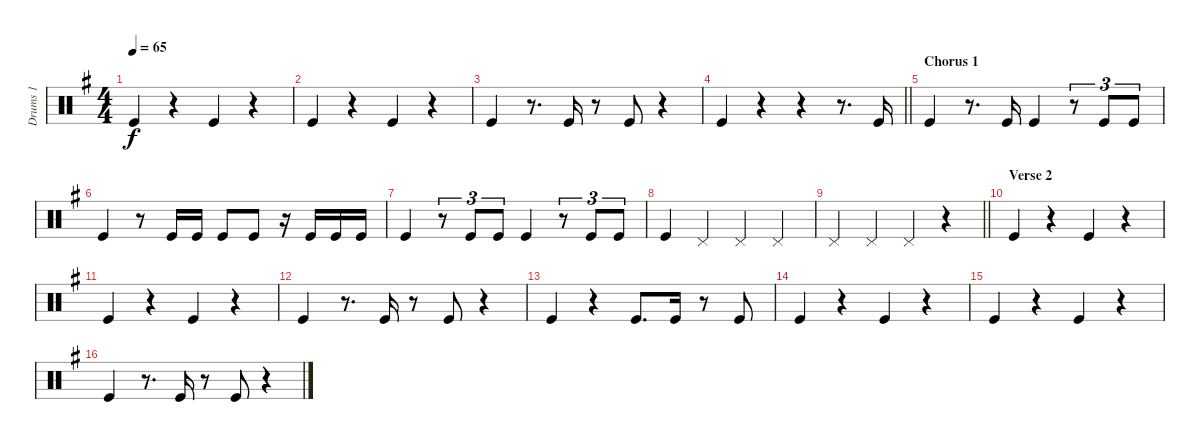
\track ("Drums 1" "Drums 1") {instrument percussion}
\staff {score}
\articulation defaults
\ts (4 4)
\tempo 65
\clef neutral
\ks g "Kick (hit)".4{dy f}
r.4 "Kick (hit)".4 r.4 |
"Kick (hit)".4 r.4 "Kick (hit)".4 r.4 |
"Kick (hit)".4 r.8{d} "Kick (hit)".16 r.8 "Kick (hit)".8 r.4 |
\barLineRight lightlight "Kick (hit)".4
r.4 r.4 r.8{d} "Kick (hit)".16 |
\section ("" "Chorus 1")
"Kick (hit)".4 r.8{d} "Kick (hit)".16 "Kick (hit)".4 r.8{tu (3 2)} "Kick (hit)".8{tu (3 2)} "Kick (hit)".8{tu (3 2)} |
"Kick (hit)".4 r.8 "Kick (hit)".16 "Kick (hit)".16 "Kick (hit)".8 "Kick (hit)".8 r.16 "Kick (hit)".16 "Kick (hit)".16 "Kick (hit)".16 |
"Kick (hit)".4 r.8{tu (3 2)} "Kick (hit)".8{tu (3 2)} "Kick (hit)".8{tu (3 2)} "Kick (hit)".4 r.8{tu (3 2)} "Kick (hit)".8{tu (3 2)} "Kick (hit)".8{tu (3 2)} |
"Kick (hit)".4 "Pedal Hi-Hat (hit)".4 "Pedal Hi-Hat (hit)".4 "Pedal Hi-Hat (hit)".4 |
\barLineRight lightlight "Pedal Hi-Hat (hit)".4 "Pedal Hi-Hat (hit)".4 "Pedal Hi-Hat (hit)".4
r.4 |
\section ("" "Verse 2")
"Kick (hit)".4 r.4 "Kick (hit)".4 r.4 |
"Kick (hit)".4 r.4 "Kick (hit)".4 r.4 |
"Kick (hit)".4 r.8{d} "Kick (hit)".16 r.8 "Kick (hit)".8 r.4 |
"Kick (hit)".4 r.4 "Kick (hit)".8{d} "Kick (hit)".16 r.8 "Kick (hit)".8 |
"Kick (hit)".4 r.4 "Kick (hit)".4 r.4 |
"Kick (hit)".4 r.4 "Kick (hit)".4 r.4 |
"Kick (hit)".4 r.8{d} "Kick (hit)".16 r.8 "Kick (hit)".8 r.4
